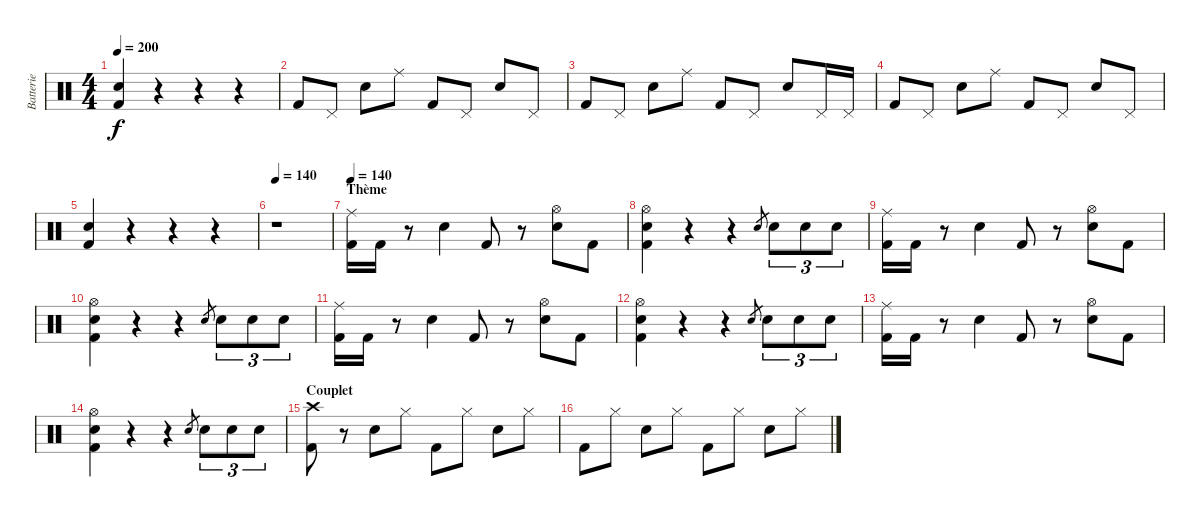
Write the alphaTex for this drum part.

\track ("Batterie" "Batterie") {instrument percussion}
\staff {score}
\articulation defaults
\ts (4 4)
\tempo 200
\clef neutral
\ks c
("Snare (hit) 2" "Kick (hit) 2").4{dy f} r.4 r.4 r.4 |
"Kick (hit) 2".8 "Pedal Hi-Hat (hit)".8 "Snare (hit) 2".8 "Ride (middle)".8 "Kick (hit) 2".8 "Pedal Hi-Hat (hit)".8 "Snare (hit) 2".8 "Pedal Hi-Hat (hit)".8 |
"Kick (hit) 2".8 "Pedal Hi-Hat (hit)".8 "Snare (hit) 2".8 "Ride (middle)".8 "Kick (hit) 2".8 "Pedal Hi-Hat (hit)".8 "Snare (hit) 2".8 "Pedal Hi-Hat (hit)".16 "Pedal Hi-Hat (hit)".16 |
"Kick (hit) 2".8 "Pedal Hi-Hat (hit)".8 "Snare (hit) 2".8 "Ride (middle)".8 "Kick (hit) 2".8 "Pedal Hi-Hat (hit)".8 "Snare (hit) 2".8 "Pedal Hi-Hat (hit)".8 |
("Snare (hit) 2" "Kick (hit) 2").4 r.4 r.4 r.4 |
\tempo 140
r.1 |
\section ("" "Thème")
\tempo 140
("Ride (middle)" "Kick (hit) 2").16 "Kick (hit) 2".16 r.8 "Electric Snare (hit)".4 "Kick (hit) 2".8 r.8 ("Hi-Hat (open)" "Electric Snare (hit)").8 "Kick (hit) 2".8 |
("Hi-Hat (open)" "Electric Snare (hit)" "Kick (hit) 2").4 r.4 r.4 "Electric Snare (hit)".8{gr} "Electric Snare (hit)".8{tu (3 2)} "Electric Snare (hit)".8{tu (3 2)} "Electric Snare (hit)".8{tu (3 2)} |
("Ride (middle)" "Kick (hit) 2").16 "Kick (hit) 2".16 r.8 "Electric Snare (hit)".4 "Kick (hit) 2".8 r.8 ("Hi-Hat (open)" "Electric Snare (hit)").8 "Kick (hit) 2".8 |
("Hi-Hat (open)" "Electric Snare (hit)" "Kick (hit) 2").4 r.4 r.4 "Electric Snare (hit)".8{gr} "Electric Snare (hit)".8{tu (3 2)} "Electric Snare (hit)".8{tu (3 2)} "Electric Snare (hit)".8{tu (3 2)} |
("Ride (middle)" "Kick (hit) 2").16 "Kick (hit) 2".16 r.8 "Electric Snare (hit)".4 "Kick (hit) 2".8 r.8 ("Hi-Hat (open)" "Electric Snare (hit)").8 "Kick (hit) 2".8 |
("Hi-Hat (open)" "Electric Snare (hit)" "Kick (hit) 2").4 r.4 r.4 "Electric Snare (hit)".8{gr} "Electric Snare (hit)".8{tu (3 2)} "Electric Snare (hit)".8{tu (3 2)} "Electric Snare (hit)".8{tu (3 2)} |
("Ride (middle)" "Kick (hit) 2").16 "Kick (hit) 2".16 r.8 "Electric Snare (hit)".4 "Kick (hit) 2".8 r.8 ("Hi-Hat (open)" "Electric Snare (hit)").8 "Kick (hit) 2".8 |
("Hi-Hat (open)" "Electric Snare (hit)" "Kick (hit) 2").4 r.4 r.4 "Electric Snare (hit)".8{gr} "Electric Snare (hit)".8{tu (3 2)} "Electric Snare (hit)".8{tu (3 2)} "Electric Snare (hit)".8{tu (3 2)} |
\section ("" "Couplet")
("Crash high (hit)" "Kick (hit) 2").8 r.8 "Electric Snare (hit)".8 "Hi-Hat (closed)".8 "Kick (hit) 2".8 "Hi-Hat (closed)".8 "Electric Snare (hit)".8 "Hi-Hat (closed)".8 |
"Kick (hit) 2".8 "Hi-Hat (closed)".8 "Electric Snare (hit)".8 "Hi-Hat (closed)".8 "Kick (hit) 2".8 "Hi-Hat (closed)".8 "Electric Snare (hit)".8 "Hi-Hat (closed)".8
